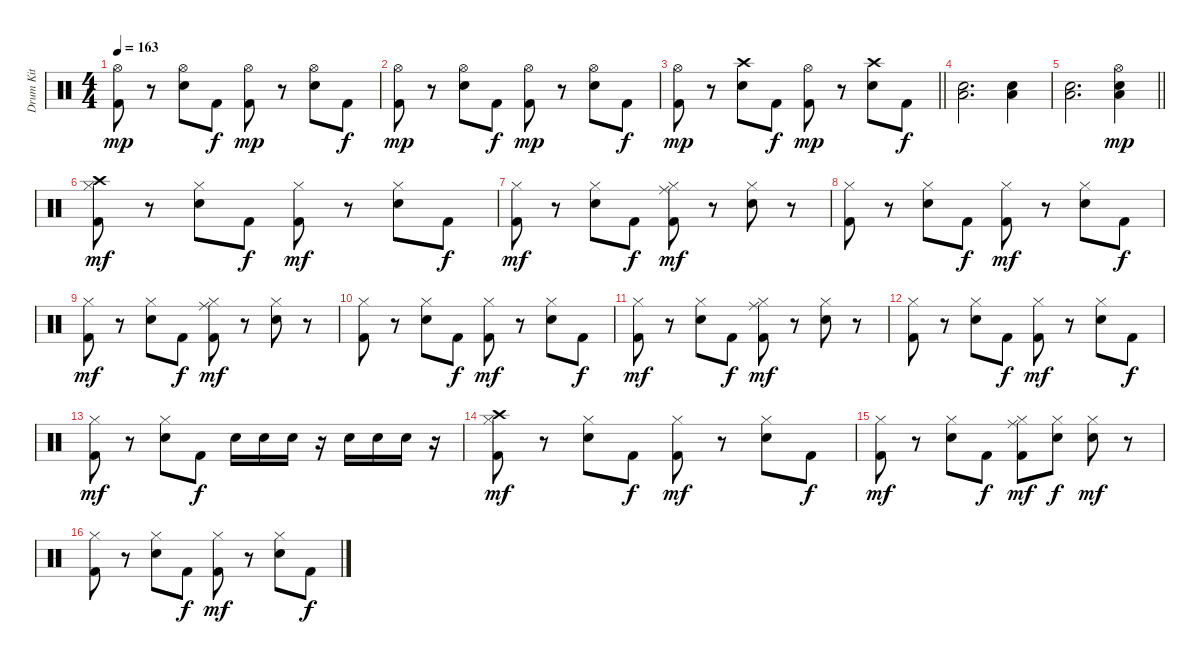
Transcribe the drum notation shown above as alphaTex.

\track ("Drum Kit" "Drum Kit") {instrument percussion}
\staff {score}
\articulation defaults
\ts (4 4)
\tempo 163
\clef neutral
\ks c
("Hi-Hat (open)" "Kick (hit) 2").8{dy mp} r.8 ("Hi-Hat (open)" "Electric Snare (hit)").8 "Kick (hit) 2".8{dy f} ("Hi-Hat (open)" "Kick (hit) 2").8{dy mp} r.8 ("Hi-Hat (open)" "Electric Snare (hit)").8 "Kick (hit) 2".8{dy f} |
("Hi-Hat (open)" "Kick (hit) 2").8{dy mp} r.8 ("Hi-Hat (open)" "Electric Snare (hit)").8 "Kick (hit) 2".8{dy f} ("Hi-Hat (open)" "Kick (hit) 2").8{dy mp} r.8 ("Hi-Hat (open)" "Electric Snare (hit)").8 "Kick (hit) 2".8{dy f} |
\barLineRight lightlight
("Hi-Hat (open)" "Kick (hit) 2").8{dy mp} r.8 ("Crash high (hit)" "Electric Snare (hit)").8 "Kick (hit) 2".8{dy f} ("Hi-Hat (open)" "Kick (hit) 2").8{dy mp} r.8 ("Crash high (hit)" "Electric Snare (hit)").8 "Kick (hit) 2".8{dy f} |
("Low Tom (hit)" "Electric Snare (hit)").2{d} ("Low Tom (hit)" "Electric Snare (hit)").4 |
\barLineRight lightlight
("Low Tom (hit)" "Electric Snare (hit)").2{d} ("Hi-Hat (open)" "Low Tom (hit)" "Electric Snare (hit)").4{dy mp} |
("Crash high (hit)" "Hi-Hat (closed)" "Kick (hit) 2").8{dy mf} r.8 ("Hi-Hat (closed)" "Electric Snare (hit)").8 "Kick (hit) 2".8{dy f} ("Hi-Hat (closed)" "Kick (hit) 2").8{dy mf} r.8 ("Hi-Hat (closed)" "Electric Snare (hit)").8 "Kick (hit) 2".8{dy f} |
("Hi-Hat (closed)" "Kick (hit) 2").8{dy mf} r.8 ("Hi-Hat (closed)" "Electric Snare (hit)").8 "Kick (hit) 2".8{dy f} ("Ride (middle)" "Hi-Hat (closed)" "Kick (hit) 2").8{dy mf} r.8 ("Hi-Hat (closed)" "Electric Snare (hit)").8 r.8 |
("Hi-Hat (closed)" "Kick (hit) 2").8 r.8 ("Hi-Hat (closed)" "Electric Snare (hit)").8 "Kick (hit) 2".8{dy f} ("Hi-Hat (closed)" "Kick (hit) 2").8{dy mf} r.8 ("Hi-Hat (closed)" "Electric Snare (hit)").8 "Kick (hit) 2".8{dy f} |
("Hi-Hat (closed)" "Kick (hit) 2").8{dy mf} r.8 ("Hi-Hat (closed)" "Electric Snare (hit)").8 "Kick (hit) 2".8{dy f} ("Ride (middle)" "Hi-Hat (closed)" "Kick (hit) 2").8{dy mf} r.8 ("Hi-Hat (closed)" "Electric Snare (hit)").8 r.8 |
("Hi-Hat (closed)" "Kick (hit) 2").8 r.8 ("Hi-Hat (closed)" "Electric Snare (hit)").8 "Kick (hit) 2".8{dy f} ("Hi-Hat (closed)" "Kick (hit) 2").8{dy mf} r.8 ("Hi-Hat (closed)" "Electric Snare (hit)").8 "Kick (hit) 2".8{dy f} |
("Hi-Hat (closed)" "Kick (hit) 2").8{dy mf} r.8 ("Hi-Hat (closed)" "Electric Snare (hit)").8 "Kick (hit) 2".8{dy f} ("Ride (middle)" "Hi-Hat (closed)" "Kick (hit) 2").8{dy mf} r.8 ("Hi-Hat (closed)" "Electric Snare (hit)").8 r.8 |
("Hi-Hat (closed)" "Kick (hit) 2").8 r.8 ("Hi-Hat (closed)" "Electric Snare (hit)").8 "Kick (hit) 2".8{dy f} ("Hi-Hat (closed)" "Kick (hit) 2").8{dy mf} r.8 ("Hi-Hat (closed)" "Electric Snare (hit)").8 "Kick (hit) 2".8{dy f} |
("Hi-Hat (closed)" "Kick (hit) 2").8{dy mf} r.8 ("Hi-Hat (closed)" "Electric Snare (hit)").8 "Kick (hit) 2".8{dy f} "Electric Snare (hit)".16 "Electric Snare (hit)".16 "Electric Snare (hit)".16 r.16 "Electric Snare (hit)".16 "Electric Snare (hit)".16 "Electric Snare (hit)".16 r.16 |
("Crash high (hit)" "Hi-Hat (closed)" "Kick (hit) 2").8{dy mf} r.8 ("Hi-Hat (closed)" "Electric Snare (hit)").8 "Kick (hit) 2".8{dy f} ("Hi-Hat (closed)" "Kick (hit) 2").8{dy mf} r.8 ("Hi-Hat (closed)" "Electric Snare (hit)").8 "Kick (hit) 2".8{dy f} |
("Hi-Hat (closed)" "Kick (hit) 2").8{dy mf} r.8 ("Hi-Hat (closed)" "Electric Snare (hit)").8 "Kick (hit) 2".8{dy f} ("Ride (middle)" "Hi-Hat (closed)" "Kick (hit) 2").8{dy mf} ("Hi-Hat (closed)" "Electric Snare (hit)").8{dy f} ("Hi-Hat (closed)" "Electric Snare (hit)").8{dy mf} r.8 |
("Hi-Hat (closed)" "Kick (hit) 2").8 r.8 ("Hi-Hat (closed)" "Electric Snare (hit)").8 "Kick (hit) 2".8{dy f} ("Hi-Hat (closed)" "Kick (hit) 2").8{dy mf} r.8 ("Hi-Hat (closed)" "Electric Snare (hit)").8 "Kick (hit) 2".8{dy f}
